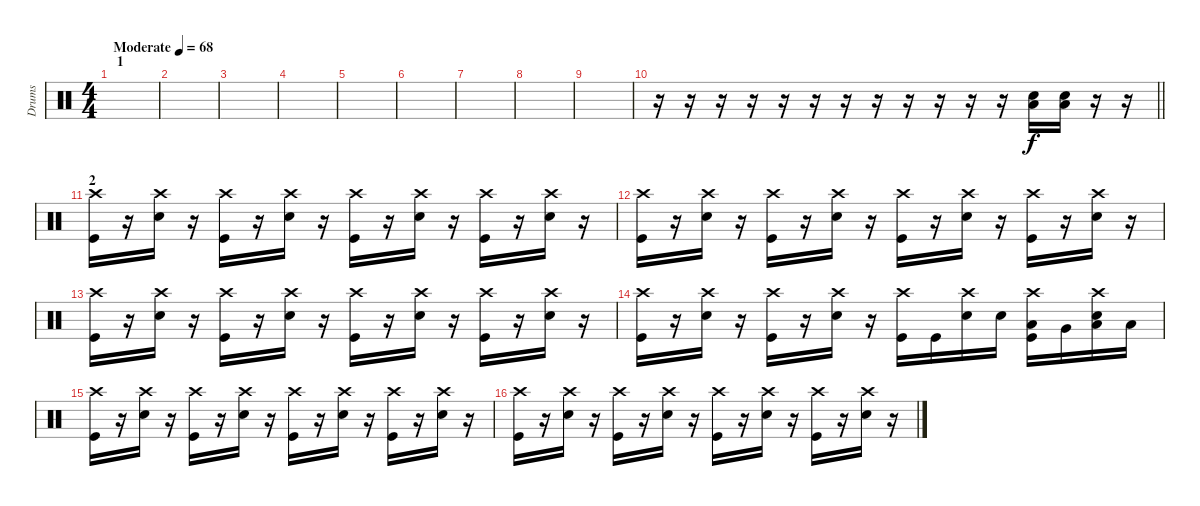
\track ("Drums" "Drums") {instrument percussion}
\staff {score}
\articulation defaults
\ts (4 4)
\section ("" " 1")
\tempo (68 "Moderate")
\clef neutral
\ks c
|
|
|
|
|
|
|
|
|
\barLineRight lightlight
r.16 r.16 r.16 r.16 r.16 r.16 r.16 r.16 r.16 r.16 r.16 r.16 ("Low Floor Tom (hit)" "Snare (hit) 2").16 ("Low Floor Tom (hit)" "Snare (hit) 2").16 r.16 r.16 |
\section ("" "2")
("Crash high (hit)" "Kick (hit)").16 r.16 ("Crash high (hit)" "Snare (hit) 2").16 r.16 ("Crash high (hit)" "Kick (hit)").16 r.16 ("Crash high (hit)" "Snare (hit) 2").16 r.16 ("Crash high (hit)" "Kick (hit)").16 r.16 ("Crash high (hit)" "Snare (hit) 2").16 r.16 ("Crash high (hit)" "Kick (hit)").16 r.16 ("Crash high (hit)" "Snare (hit) 2").16 r.16 |
("Crash high (hit)" "Kick (hit)").16 r.16 ("Crash high (hit)" "Snare (hit) 2").16 r.16 ("Crash high (hit)" "Kick (hit)").16 r.16 ("Crash high (hit)" "Snare (hit) 2").16 r.16 ("Crash high (hit)" "Kick (hit)").16 r.16 ("Crash high (hit)" "Snare (hit) 2").16 r.16 ("Crash high (hit)" "Kick (hit)").16 r.16 ("Crash high (hit)" "Snare (hit) 2").16 r.16 |
("Crash high (hit)" "Kick (hit)").16 r.16 ("Crash high (hit)" "Snare (hit) 2").16 r.16 ("Crash high (hit)" "Kick (hit)").16 r.16 ("Crash high (hit)" "Snare (hit) 2").16 r.16 ("Crash high (hit)" "Kick (hit)").16 r.16 ("Crash high (hit)" "Snare (hit) 2").16 r.16 ("Crash high (hit)" "Kick (hit)").16 r.16 ("Crash high (hit)" "Snare (hit) 2").16 r.16 |
("Crash high (hit)" "Kick (hit)").16 r.16 ("Crash high (hit)" "Snare (hit) 2").16 r.16 ("Crash high (hit)" "Kick (hit)").16 r.16 ("Crash high (hit)" "Snare (hit) 2").16 r.16 ("Crash high (hit)" "Kick (hit)").16 "Kick (hit)".16 ("Crash high (hit)" "Snare (hit) 2").16 "Snare (hit) 2".16 ("Crash high (hit)" "Low Tom (hit)" "Kick (hit)").16 "Very Low Tom (hit)".16 ("Crash high (hit)" "Low Floor Tom (hit)" "Snare (hit) 2").16 "Low Floor Tom (hit)".16 |
("Crash high (hit)" "Kick (hit)").16 r.16 ("Crash high (hit)" "Snare (hit) 2").16 r.16 ("Crash high (hit)" "Kick (hit)").16 r.16 ("Crash high (hit)" "Snare (hit) 2").16 r.16 ("Crash high (hit)" "Kick (hit)").16 r.16 ("Crash high (hit)" "Snare (hit) 2").16 r.16 ("Crash high (hit)" "Kick (hit)").16 r.16 ("Crash high (hit)" "Snare (hit) 2").16 r.16 |
("Crash high (hit)" "Kick (hit)").16 r.16 ("Crash high (hit)" "Snare (hit) 2").16 r.16 ("Crash high (hit)" "Kick (hit)").16 r.16 ("Crash high (hit)" "Snare (hit) 2").16 r.16 ("Crash high (hit)" "Kick (hit)").16 r.16 ("Crash high (hit)" "Snare (hit) 2").16 r.16 ("Crash high (hit)" "Kick (hit)").16 r.16 ("Crash high (hit)" "Snare (hit) 2").16 r.16
